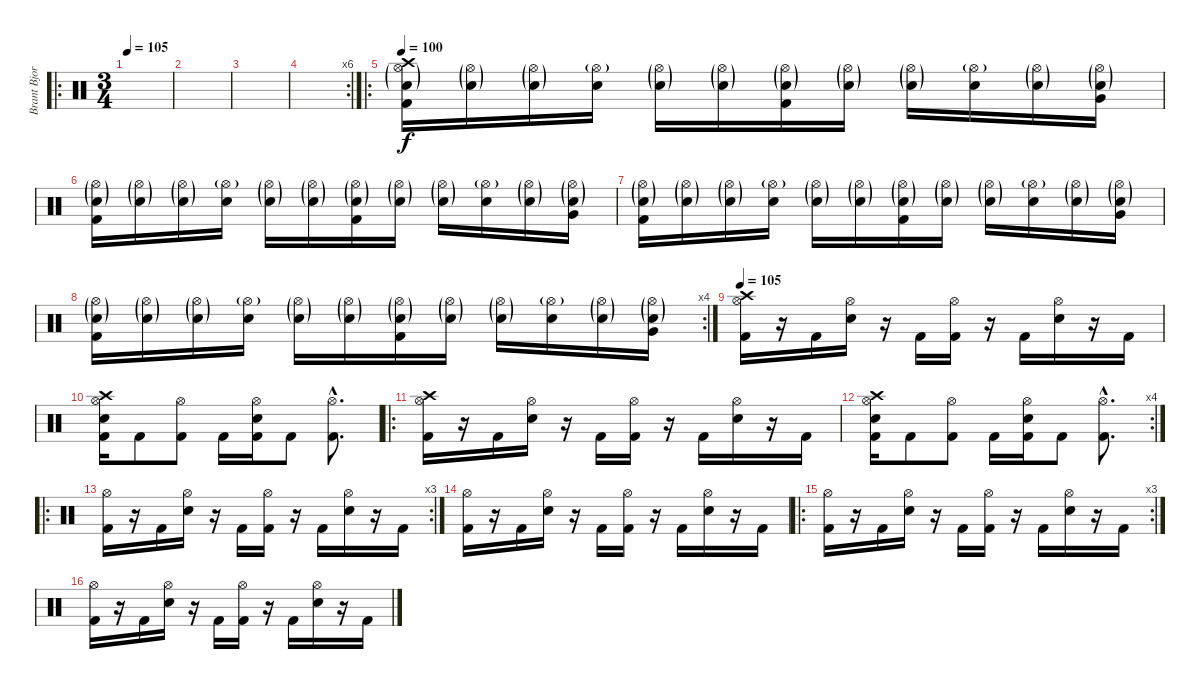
\track ("Brant Bjork" "Brant Bjor") {instrument percussion}
\staff {score}
\articulation defaults
\ro
\ts (3 4)
\tempo 105
\clef neutral
\ks c
|
|
|
\rc 6
|
\ro
\tempo 100
("Crash high (hit)" "Hi-Hat (open)"{g} "Electric Snare (hit)"{g} "Kick (hit) 2").16 ("Hi-Hat (open)"{g} "Electric Snare (hit)"{g}).16 ("Hi-Hat (open)"{g} "Electric Snare (hit)"{g}).16 ("Hi-Hat (open)"{g} "Electric Snare (hit)").16 ("Hi-Hat (open)"{g} "Electric Snare (hit)"{g}).16 ("Hi-Hat (open)"{g} "Electric Snare (hit)"{g}).16 ("Hi-Hat (open)"{g} "Electric Snare (hit)"{g} "Kick (hit) 2").16 ("Hi-Hat (open)"{g} "Electric Snare (hit)"{g}).16 ("Hi-Hat (open)"{g} "Electric Snare (hit)"{g}).16 ("Hi-Hat (open)"{g} "Electric Snare (hit)").16 ("Hi-Hat (open)"{g} "Electric Snare (hit)"{g}).16 ("Hi-Hat (open)"{g} "Electric Snare (hit)"{g} "Very Low Tom (hit)").16 |
("Hi-Hat (open)"{g} "Electric Snare (hit)"{g} "Kick (hit) 2").16 ("Hi-Hat (open)"{g} "Electric Snare (hit)"{g}).16 ("Hi-Hat (open)"{g} "Electric Snare (hit)"{g}).16 ("Hi-Hat (open)"{g} "Electric Snare (hit)").16 ("Hi-Hat (open)"{g} "Electric Snare (hit)"{g}).16 ("Hi-Hat (open)"{g} "Electric Snare (hit)"{g}).16 ("Hi-Hat (open)"{g} "Electric Snare (hit)"{g} "Kick (hit) 2").16 ("Hi-Hat (open)"{g} "Electric Snare (hit)"{g}).16 ("Hi-Hat (open)"{g} "Electric Snare (hit)"{g}).16 ("Hi-Hat (open)"{g} "Electric Snare (hit)").16 ("Hi-Hat (open)"{g} "Electric Snare (hit)"{g}).16 ("Hi-Hat (open)"{g} "Electric Snare (hit)"{g} "Very Low Tom (hit)").16 |
("Hi-Hat (open)"{g} "Electric Snare (hit)"{g} "Kick (hit) 2").16 ("Hi-Hat (open)"{g} "Electric Snare (hit)"{g}).16 ("Hi-Hat (open)"{g} "Electric Snare (hit)"{g}).16 ("Hi-Hat (open)"{g} "Electric Snare (hit)").16 ("Hi-Hat (open)"{g} "Electric Snare (hit)"{g}).16 ("Hi-Hat (open)"{g} "Electric Snare (hit)"{g}).16 ("Hi-Hat (open)"{g} "Electric Snare (hit)"{g} "Kick (hit) 2").16 ("Hi-Hat (open)"{g} "Electric Snare (hit)"{g}).16 ("Hi-Hat (open)"{g} "Electric Snare (hit)"{g}).16 ("Hi-Hat (open)"{g} "Electric Snare (hit)").16 ("Hi-Hat (open)"{g} "Electric Snare (hit)"{g}).16 ("Hi-Hat (open)"{g} "Electric Snare (hit)"{g} "Very Low Tom (hit)").16 |
\rc 4
("Hi-Hat (open)"{g} "Electric Snare (hit)"{g} "Kick (hit) 2").16 ("Hi-Hat (open)"{g} "Electric Snare (hit)"{g}).16 ("Hi-Hat (open)"{g} "Electric Snare (hit)"{g}).16 ("Hi-Hat (open)"{g} "Electric Snare (hit)").16 ("Hi-Hat (open)"{g} "Electric Snare (hit)"{g}).16 ("Hi-Hat (open)"{g} "Electric Snare (hit)"{g}).16 ("Hi-Hat (open)"{g} "Electric Snare (hit)"{g} "Kick (hit) 2").16 ("Hi-Hat (open)"{g} "Electric Snare (hit)"{g}).16 ("Hi-Hat (open)"{g} "Electric Snare (hit)"{g}).16 ("Hi-Hat (open)"{g} "Electric Snare (hit)").16 ("Hi-Hat (open)"{g} "Electric Snare (hit)"{g}).16 ("Hi-Hat (open)"{g} "Electric Snare (hit)"{g} "Very Low Tom (hit)").16 |
\tempo 105
("Crash high (hit)" "Hi-Hat (open)" "Kick (hit) 2").16{dy f} r.16 "Kick (hit) 2".16 ("Electric Snare (hit)" "Hi-Hat (open)").16 r.16 "Kick (hit) 2".16 ("Hi-Hat (open)" "Kick (hit) 2").16 r.16 "Kick (hit) 2".16 ("Electric Snare (hit)" "Hi-Hat (open)").16 r.16 "Kick (hit) 2".16 |
("Electric Snare (hit)" "Crash high (hit)" "Hi-Hat (open)" "Kick (hit) 2").16 "Kick (hit) 2".8 ("Hi-Hat (open)" "Kick (hit) 2").8 "Kick (hit) 2".16 ("Electric Snare (hit)" "Hi-Hat (open)" "Kick (hit) 2").16 "Kick (hit) 2".8 ("Hi-Hat (open)"{hac} "Kick (hit) 2"{hac}).8{d} |
\ro
("Crash high (hit)" "Hi-Hat (open)" "Kick (hit) 2").16 r.16 "Kick (hit) 2".16 ("Electric Snare (hit)" "Hi-Hat (open)").16 r.16 "Kick (hit) 2".16 ("Hi-Hat (open)" "Kick (hit) 2").16 r.16 "Kick (hit) 2".16 ("Electric Snare (hit)" "Hi-Hat (open)").16 r.16 "Kick (hit) 2".16 |
\rc 4
("Electric Snare (hit)" "Crash high (hit)" "Hi-Hat (open)" "Kick (hit) 2").16 "Kick (hit) 2".8 ("Hi-Hat (open)" "Kick (hit) 2").8 "Kick (hit) 2".16 ("Electric Snare (hit)" "Hi-Hat (open)" "Kick (hit) 2").16 "Kick (hit) 2".8 ("Hi-Hat (open)"{hac} "Kick (hit) 2"{hac}).8{d} |
\ro
\rc 3
("Hi-Hat (open)" "Kick (hit) 2").16 r.16 "Kick (hit) 2".16 ("Electric Snare (hit)" "Hi-Hat (open)").16 r.16 "Kick (hit) 2".16 ("Hi-Hat (open)" "Kick (hit) 2").16 r.16 "Kick (hit) 2".16 ("Electric Snare (hit)" "Hi-Hat (open)").16 r.16 "Kick (hit) 2".16 |
("Hi-Hat (open)" "Kick (hit) 2").16 r.16 "Kick (hit) 2".16 ("Electric Snare (hit)" "Hi-Hat (open)").16 r.16 "Kick (hit) 2".16 ("Hi-Hat (open)" "Kick (hit) 2").16 r.16 "Kick (hit) 2".16 ("Electric Snare (hit)" "Hi-Hat (open)").16 r.16 "Kick (hit) 2".16 |
\ro
\rc 3
("Hi-Hat (open)" "Kick (hit) 2").16 r.16 "Kick (hit) 2".16 ("Electric Snare (hit)" "Hi-Hat (open)").16 r.16 "Kick (hit) 2".16 ("Hi-Hat (open)" "Kick (hit) 2").16 r.16 "Kick (hit) 2".16 ("Electric Snare (hit)" "Hi-Hat (open)").16 r.16 "Kick (hit) 2".16 |
("Hi-Hat (open)" "Kick (hit) 2").16 r.16 "Kick (hit) 2".16 ("Electric Snare (hit)" "Hi-Hat (open)").16 r.16 "Kick (hit) 2".16 ("Hi-Hat (open)" "Kick (hit) 2").16 r.16 "Kick (hit) 2".16 ("Electric Snare (hit)" "Hi-Hat (open)").16 r.16 "Kick (hit) 2".16
